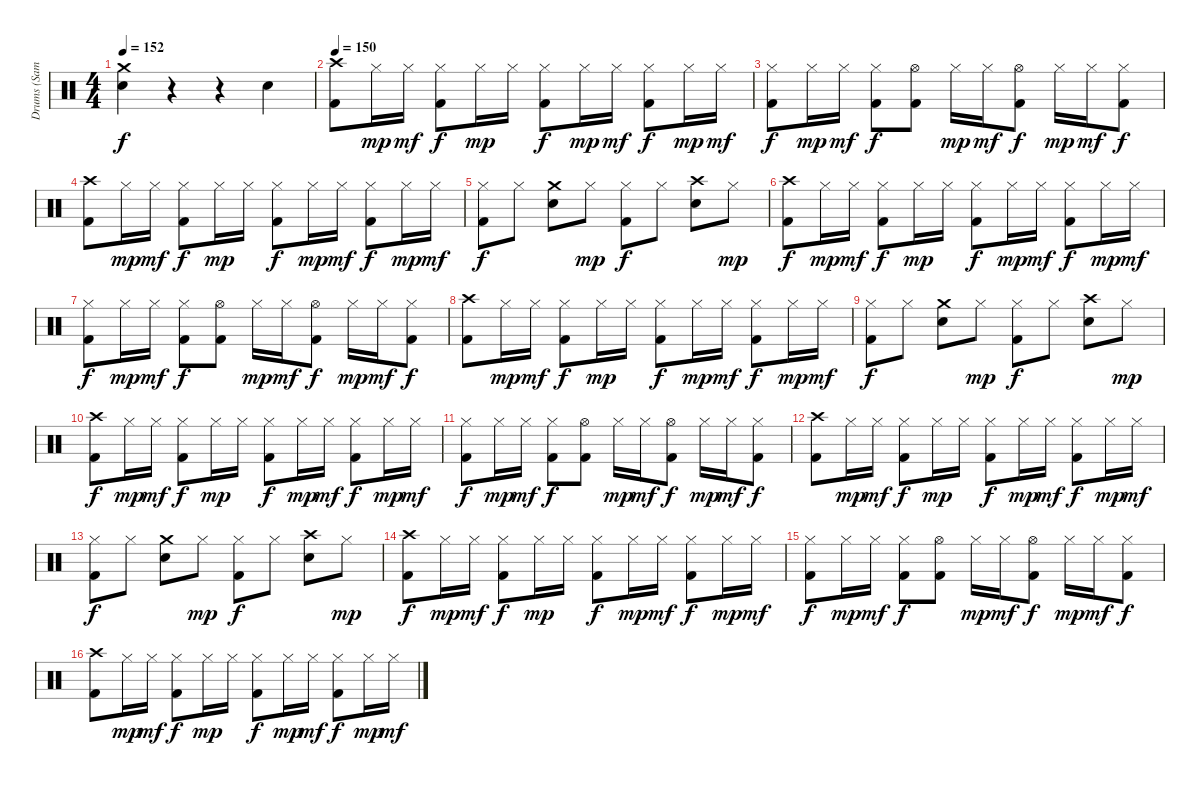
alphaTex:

\track ("Drums (Samuelson)" "Drums (Sam") {instrument percussion}
\staff
\articulation defaults
\ts (4 4)
\tempo 152
\clef neutral
\ks c
("Crash medium (hit)" "Electric Snare (hit)").4{dy f} r.4 r.4 "Electric Snare (hit)".4 |
\tempo 150
("Crash high (hit)" "Kick (hit) 2").8 "Hi-Hat (closed)".16{dy mp} "Hi-Hat (closed)".16{dy mf} ("Hi-Hat (closed)" "Kick (hit) 2").8{dy f} "Hi-Hat (closed)".16{dy mp} "Hi-Hat (closed)".16 ("Hi-Hat (closed)" "Kick (hit) 2").8{dy f} "Hi-Hat (closed)".16{dy mp} "Hi-Hat (closed)".16{dy mf} ("Hi-Hat (closed)" "Kick (hit) 2").8{dy f} "Hi-Hat (closed)".16{dy mp} "Hi-Hat (closed)".16{dy mf} |
("Hi-Hat (closed)" "Kick (hit) 2").8{dy f} "Hi-Hat (closed)".16{dy mp} "Hi-Hat (closed)".16{dy mf} ("Hi-Hat (closed)" "Kick (hit) 2").8{dy f} ("Hi-Hat (open)" "Kick (hit) 2").8 "Hi-Hat (closed)".16{dy mp} "Hi-Hat (closed)".16{dy mf} ("Hi-Hat (open)" "Kick (hit) 2").8{dy f} "Hi-Hat (closed)".16{dy mp} "Hi-Hat (closed)".16{dy mf} ("Hi-Hat (closed)" "Kick (hit) 2").8{dy f} |
("Crash high (hit)" "Kick (hit) 2").8 "Hi-Hat (closed)".16{dy mp} "Hi-Hat (closed)".16{dy mf} ("Hi-Hat (closed)" "Kick (hit) 2").8{dy f} "Hi-Hat (closed)".16{dy mp} "Hi-Hat (closed)".16 ("Hi-Hat (closed)" "Kick (hit) 2").8{dy f} "Hi-Hat (closed)".16{dy mp} "Hi-Hat (closed)".16{dy mf} ("Hi-Hat (closed)" "Kick (hit) 2").8{dy f} "Hi-Hat (closed)".16{dy mp} "Hi-Hat (closed)".16{dy mf} |
("Hi-Hat (closed)" "Kick (hit) 2").8{dy f} "Hi-Hat (closed)".8 ("Crash medium (hit)" "Electric Snare (hit)").8 "Hi-Hat (closed)".8{dy mp} ("Hi-Hat (closed)" "Kick (hit) 2").8{dy f} "Hi-Hat (closed)".8 ("Crash high (hit)" "Electric Snare (hit)").8 "Hi-Hat (closed)".8{dy mp} |
("Crash high (hit)" "Kick (hit) 2").8{dy f} "Hi-Hat (closed)".16{dy mp} "Hi-Hat (closed)".16{dy mf} ("Hi-Hat (closed)" "Kick (hit) 2").8{dy f} "Hi-Hat (closed)".16{dy mp} "Hi-Hat (closed)".16 ("Hi-Hat (closed)" "Kick (hit) 2").8{dy f} "Hi-Hat (closed)".16{dy mp} "Hi-Hat (closed)".16{dy mf} ("Hi-Hat (closed)" "Kick (hit) 2").8{dy f} "Hi-Hat (closed)".16{dy mp} "Hi-Hat (closed)".16{dy mf} |
("Hi-Hat (closed)" "Kick (hit) 2").8{dy f} "Hi-Hat (closed)".16{dy mp} "Hi-Hat (closed)".16{dy mf} ("Hi-Hat (closed)" "Kick (hit) 2").8{dy f} ("Hi-Hat (open)" "Kick (hit) 2").8 "Hi-Hat (closed)".16{dy mp} "Hi-Hat (closed)".16{dy mf} ("Hi-Hat (open)" "Kick (hit) 2").8{dy f} "Hi-Hat (closed)".16{dy mp} "Hi-Hat (closed)".16{dy mf} ("Hi-Hat (closed)" "Kick (hit) 2").8{dy f} |
("Crash high (hit)" "Kick (hit) 2").8 "Hi-Hat (closed)".16{dy mp} "Hi-Hat (closed)".16{dy mf} ("Hi-Hat (closed)" "Kick (hit) 2").8{dy f} "Hi-Hat (closed)".16{dy mp} "Hi-Hat (closed)".16 ("Hi-Hat (closed)" "Kick (hit) 2").8{dy f} "Hi-Hat (closed)".16{dy mp} "Hi-Hat (closed)".16{dy mf} ("Hi-Hat (closed)" "Kick (hit) 2").8{dy f} "Hi-Hat (closed)".16{dy mp} "Hi-Hat (closed)".16{dy mf} |
("Hi-Hat (closed)" "Kick (hit) 2").8{dy f} "Hi-Hat (closed)".8 ("Crash medium (hit)" "Electric Snare (hit)").8 "Hi-Hat (closed)".8{dy mp} ("Hi-Hat (closed)" "Kick (hit) 2").8{dy f} "Hi-Hat (closed)".8 ("Crash high (hit)" "Electric Snare (hit)").8 "Hi-Hat (closed)".8{dy mp} |
("Crash high (hit)" "Kick (hit) 2").8{dy f} "Hi-Hat (closed)".16{dy mp} "Hi-Hat (closed)".16{dy mf} ("Hi-Hat (closed)" "Kick (hit) 2").8{dy f} "Hi-Hat (closed)".16{dy mp} "Hi-Hat (closed)".16 ("Hi-Hat (closed)" "Kick (hit) 2").8{dy f} "Hi-Hat (closed)".16{dy mp} "Hi-Hat (closed)".16{dy mf} ("Hi-Hat (closed)" "Kick (hit) 2").8{dy f} "Hi-Hat (closed)".16{dy mp} "Hi-Hat (closed)".16{dy mf} |
("Hi-Hat (closed)" "Kick (hit) 2").8{dy f} "Hi-Hat (closed)".16{dy mp} "Hi-Hat (closed)".16{dy mf} ("Hi-Hat (closed)" "Kick (hit) 2").8{dy f} ("Hi-Hat (open)" "Kick (hit) 2").8 "Hi-Hat (closed)".16{dy mp} "Hi-Hat (closed)".16{dy mf} ("Hi-Hat (open)" "Kick (hit) 2").8{dy f} "Hi-Hat (closed)".16{dy mp} "Hi-Hat (closed)".16{dy mf} ("Hi-Hat (closed)" "Kick (hit) 2").8{dy f} |
("Crash high (hit)" "Kick (hit) 2").8 "Hi-Hat (closed)".16{dy mp} "Hi-Hat (closed)".16{dy mf} ("Hi-Hat (closed)" "Kick (hit) 2").8{dy f} "Hi-Hat (closed)".16{dy mp} "Hi-Hat (closed)".16 ("Hi-Hat (closed)" "Kick (hit) 2").8{dy f} "Hi-Hat (closed)".16{dy mp} "Hi-Hat (closed)".16{dy mf} ("Hi-Hat (closed)" "Kick (hit) 2").8{dy f} "Hi-Hat (closed)".16{dy mp} "Hi-Hat (closed)".16{dy mf} |
("Hi-Hat (closed)" "Kick (hit) 2").8{dy f} "Hi-Hat (closed)".8 ("Crash medium (hit)" "Electric Snare (hit)").8 "Hi-Hat (closed)".8{dy mp} ("Hi-Hat (closed)" "Kick (hit) 2").8{dy f} "Hi-Hat (closed)".8 ("Crash high (hit)" "Electric Snare (hit)").8 "Hi-Hat (closed)".8{dy mp} |
("Crash high (hit)" "Kick (hit) 2").8{dy f} "Hi-Hat (closed)".16{dy mp} "Hi-Hat (closed)".16{dy mf} ("Hi-Hat (closed)" "Kick (hit) 2").8{dy f} "Hi-Hat (closed)".16{dy mp} "Hi-Hat (closed)".16 ("Hi-Hat (closed)" "Kick (hit) 2").8{dy f} "Hi-Hat (closed)".16{dy mp} "Hi-Hat (closed)".16{dy mf} ("Hi-Hat (closed)" "Kick (hit) 2").8{dy f} "Hi-Hat (closed)".16{dy mp} "Hi-Hat (closed)".16{dy mf} |
("Hi-Hat (closed)" "Kick (hit) 2").8{dy f} "Hi-Hat (closed)".16{dy mp} "Hi-Hat (closed)".16{dy mf} ("Hi-Hat (closed)" "Kick (hit) 2").8{dy f} ("Hi-Hat (open)" "Kick (hit) 2").8 "Hi-Hat (closed)".16{dy mp} "Hi-Hat (closed)".16{dy mf} ("Hi-Hat (open)" "Kick (hit) 2").8{dy f} "Hi-Hat (closed)".16{dy mp} "Hi-Hat (closed)".16{dy mf} ("Hi-Hat (closed)" "Kick (hit) 2").8{dy f} |
("Crash high (hit)" "Kick (hit) 2").8 "Hi-Hat (closed)".16{dy mp} "Hi-Hat (closed)".16{dy mf} ("Hi-Hat (closed)" "Kick (hit) 2").8{dy f} "Hi-Hat (closed)".16{dy mp} "Hi-Hat (closed)".16 ("Hi-Hat (closed)" "Kick (hit) 2").8{dy f} "Hi-Hat (closed)".16{dy mp} "Hi-Hat (closed)".16{dy mf} ("Hi-Hat (closed)" "Kick (hit) 2").8{dy f} "Hi-Hat (closed)".16{dy mp} "Hi-Hat (closed)".16{dy mf}
